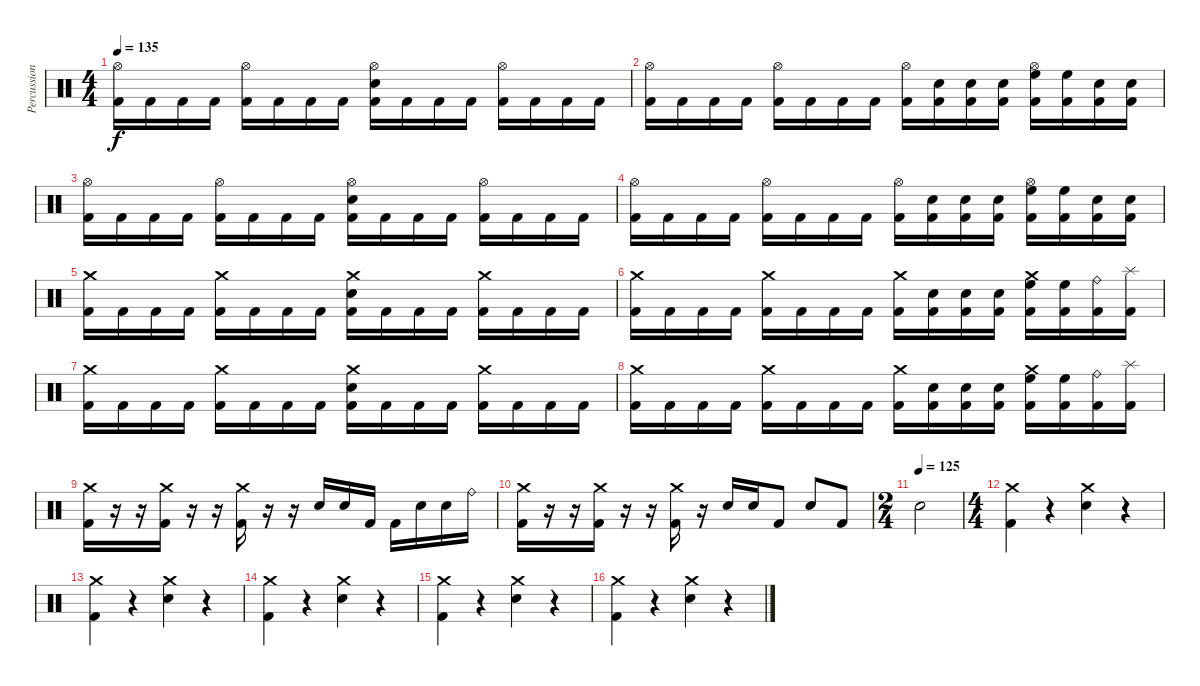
\track ("Percussion" "Percussion") {instrument percussion}
\staff {score}
\articulation defaults
\ts (4 4)
\tempo 135
\clef neutral
\ks c
("Hi-Hat (open)" "Kick (hit) 2").16{dy f} "Kick (hit) 2".16 "Kick (hit) 2".16 "Kick (hit) 2".16 ("Hi-Hat (open)" "Kick (hit) 2").16 "Kick (hit) 2".16 "Kick (hit) 2".16 "Kick (hit) 2".16 ("Hi-Hat (open)" "Electric Snare (hit)" "Kick (hit) 2").16 "Kick (hit) 2".16 "Kick (hit) 2".16 "Kick (hit) 2".16 ("Hi-Hat (open)" "Kick (hit) 2").16 "Kick (hit) 2".16 "Kick (hit) 2".16 "Kick (hit) 2".16 |
("Hi-Hat (open)" "Kick (hit) 2").16 "Kick (hit) 2".16 "Kick (hit) 2".16 "Kick (hit) 2".16 ("Hi-Hat (open)" "Kick (hit) 2").16 "Kick (hit) 2".16 "Kick (hit) 2".16 "Kick (hit) 2".16 ("Hi-Hat (open)" "Kick (hit) 2").16 ("Electric Snare (hit)" "Kick (hit) 2").16 ("Electric Snare (hit)" "Kick (hit) 2").16 ("Electric Snare (hit)" "Kick (hit) 2").16 ("Hi-Hat (open)" "High Floor Tom (hit)" "Kick (hit) 2").16 ("High Floor Tom (hit)" "Kick (hit) 2").16 ("Electric Snare (hit)" "Kick (hit) 2").16 ("Electric Snare (hit)" "Kick (hit) 2").16 |
("Hi-Hat (open)" "Kick (hit) 2").16 "Kick (hit) 2".16 "Kick (hit) 2".16 "Kick (hit) 2".16 ("Hi-Hat (open)" "Kick (hit) 2").16 "Kick (hit) 2".16 "Kick (hit) 2".16 "Kick (hit) 2".16 ("Hi-Hat (open)" "Electric Snare (hit)" "Kick (hit) 2").16 "Kick (hit) 2".16 "Kick (hit) 2".16 "Kick (hit) 2".16 ("Hi-Hat (open)" "Kick (hit) 2").16 "Kick (hit) 2".16 "Kick (hit) 2".16 "Kick (hit) 2".16 |
("Hi-Hat (open)" "Kick (hit) 2").16 "Kick (hit) 2".16 "Kick (hit) 2".16 "Kick (hit) 2".16 ("Hi-Hat (open)" "Kick (hit) 2").16 "Kick (hit) 2".16 "Kick (hit) 2".16 "Kick (hit) 2".16 ("Hi-Hat (open)" "Kick (hit) 2").16 ("Electric Snare (hit)" "Kick (hit) 2").16 ("Electric Snare (hit)" "Kick (hit) 2").16 ("Electric Snare (hit)" "Kick (hit) 2").16 ("Hi-Hat (open)" "High Floor Tom (hit)" "Kick (hit) 2").16 ("High Floor Tom (hit)" "Kick (hit) 2").16 ("Electric Snare (hit)" "Kick (hit) 2").16 ("Electric Snare (hit)" "Kick (hit) 2").16 |
("Crash medium (hit)" "Kick (hit) 2").16 "Kick (hit) 2".16 "Kick (hit) 2".16 "Kick (hit) 2".16 ("Crash medium (hit)" "Kick (hit) 2").16 "Kick (hit) 2".16 "Kick (hit) 2".16 "Kick (hit) 2".16 ("Crash medium (hit)" "Electric Snare (hit)" "Kick (hit) 2").16 "Kick (hit) 2".16 "Kick (hit) 2".16 "Kick (hit) 2".16 ("Crash medium (hit)" "Kick (hit) 2").16 "Kick (hit) 2".16 "Kick (hit) 2".16 "Kick (hit) 2".16 |
("Crash medium (hit)" "Kick (hit) 2").16 "Kick (hit) 2".16 "Kick (hit) 2".16 "Kick (hit) 2".16 ("Crash medium (hit)" "Kick (hit) 2").16 "Kick (hit) 2".16 "Kick (hit) 2".16 "Kick (hit) 2".16 ("Crash medium (hit)" "Kick (hit) 2").16 ("Electric Snare (hit)" "Kick (hit) 2").16 ("Electric Snare (hit)" "Kick (hit) 2").16 ("Electric Snare (hit)" "Kick (hit) 2").16 ("Crash medium (hit)" "High Floor Tom (hit)" "Kick (hit) 2").16 ("High Floor Tom (hit)" "Kick (hit) 2").16 ("Ride (bell)" "Kick (hit) 2").16 ("Splash (hit)" "Kick (hit) 2").16 |
("Crash medium (hit)" "Kick (hit) 2").16 "Kick (hit) 2".16 "Kick (hit) 2".16 "Kick (hit) 2".16 ("Crash medium (hit)" "Kick (hit) 2").16 "Kick (hit) 2".16 "Kick (hit) 2".16 "Kick (hit) 2".16 ("Crash medium (hit)" "Electric Snare (hit)" "Kick (hit) 2").16 "Kick (hit) 2".16 "Kick (hit) 2".16 "Kick (hit) 2".16 ("Crash medium (hit)" "Kick (hit) 2").16 "Kick (hit) 2".16 "Kick (hit) 2".16 "Kick (hit) 2".16 |
("Crash medium (hit)" "Kick (hit) 2").16 "Kick (hit) 2".16 "Kick (hit) 2".16 "Kick (hit) 2".16 ("Crash medium (hit)" "Kick (hit) 2").16 "Kick (hit) 2".16 "Kick (hit) 2".16 "Kick (hit) 2".16 ("Crash medium (hit)" "Kick (hit) 2").16 ("Electric Snare (hit)" "Kick (hit) 2").16 ("Electric Snare (hit)" "Kick (hit) 2").16 ("Electric Snare (hit)" "Kick (hit) 2").16 ("Crash medium (hit)" "High Floor Tom (hit)" "Kick (hit) 2").16 ("High Floor Tom (hit)" "Kick (hit) 2").16 ("Ride (bell)" "Kick (hit) 2").16 ("Splash (hit)" "Kick (hit) 2").16 |
("Crash medium (hit)" "Kick (hit) 2").16 r.16 r.16 ("Crash medium (hit)" "Kick (hit) 2").16 r.16 r.16 ("Crash medium (hit)" "Kick (hit) 2").16 r.16 r.16 "Electric Snare (hit)".16 "Electric Snare (hit)".16 "Kick (hit) 2".16 "Kick (hit) 2".16 "Electric Snare (hit)".16 "Electric Snare (hit)".16 "Ride (bell)".16 |
("Crash medium (hit)" "Kick (hit) 2").16 r.16 r.16 ("Crash medium (hit)" "Kick (hit) 2").16 r.16 r.16 ("Crash medium (hit)" "Kick (hit) 2").16 r.16 "Electric Snare (hit)".16 "Electric Snare (hit)".16 "Kick (hit) 2".8 "Electric Snare (hit)".8 "Kick (hit) 2".8 |
\ts (2 4)
\tempo (125)
"Electric Snare (hit)".2 |
\ts (4 4)
("Crash medium (hit)" "Kick (hit) 2").4 r.4 ("Crash medium (hit)" "Electric Snare (hit)").4 r.4 |
("Crash medium (hit)" "Kick (hit) 2").4 r.4 ("Crash medium (hit)" "Electric Snare (hit)").4 r.4 |
("Crash medium (hit)" "Kick (hit) 2").4 r.4 ("Crash medium (hit)" "Electric Snare (hit)").4 r.4 |
("Crash medium (hit)" "Kick (hit) 2").4 r.4 ("Crash medium (hit)" "Electric Snare (hit)").4 r.4 |
("Crash medium (hit)" "Kick (hit) 2").4 r.4 ("Crash medium (hit)" "Electric Snare (hit)").4 r.4
